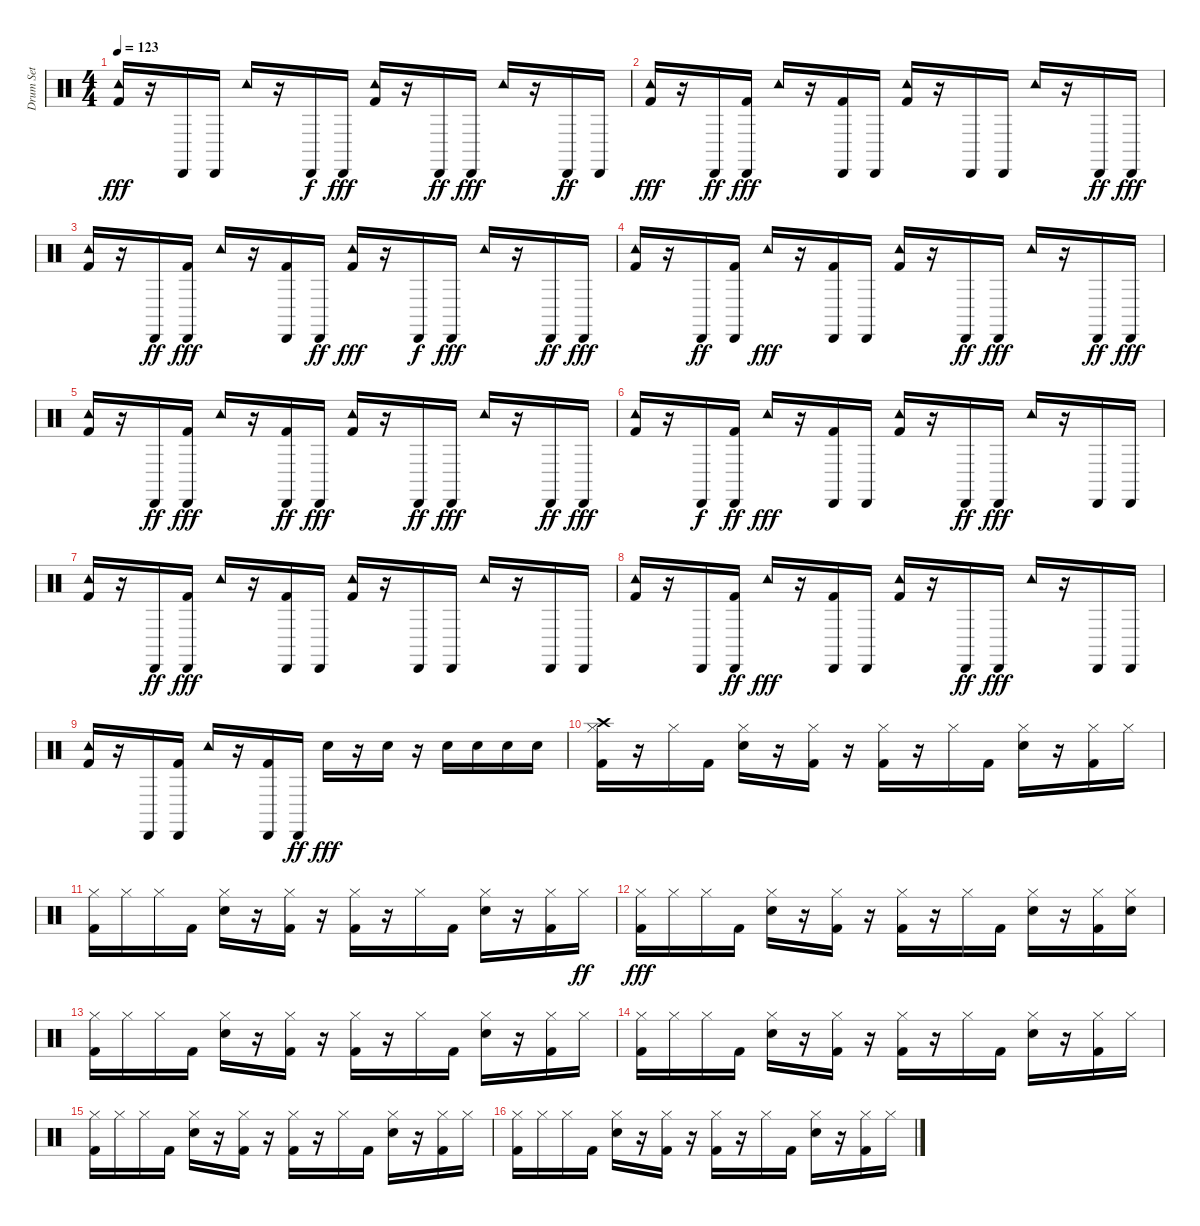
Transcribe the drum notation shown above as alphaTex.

\track ("Drum Set" "Drum Set") {instrument percussion}
\staff {score}
\articulation defaults
\ts (4 4)
\tempo 123
\clef neutral
\ks c
("Kick (hit) 2" "Tambourine (hit)").16{dy fff} r.16 "Cabasa (hit)".16 "Cabasa (hit)".16 "Tambourine (hit)".16 r.16 "Cabasa (hit)".16{dy f} "Cabasa (hit)".16{dy fff} ("Kick (hit) 2" "Tambourine (hit)").16 r.16 "Cabasa (hit)".16{dy ff} "Cabasa (hit)".16{dy fff} "Tambourine (hit)".16 r.16 "Cabasa (hit)".16{dy ff} "Cabasa (hit)".16 |
("Kick (hit) 2" "Tambourine (hit)").16{dy fff} r.16 "Cabasa (hit)".16{dy ff} ("Kick (hit) 2" "Cabasa (hit)").16{dy fff} "Tambourine (hit)".16 r.16 ("Cabasa (hit)" "Kick (hit) 2").16 "Cabasa (hit)".16 ("Kick (hit) 2" "Tambourine (hit)").16 r.16 "Cabasa (hit)".16 "Cabasa (hit)".16 "Tambourine (hit)".16 r.16 "Cabasa (hit)".16{dy ff} "Cabasa (hit)".16{dy fff} |
("Kick (hit) 2" "Tambourine (hit)").16 r.16 "Cabasa (hit)".16{dy ff} ("Kick (hit) 2" "Cabasa (hit)").16{dy fff} "Tambourine (hit)".16 r.16 ("Kick (hit) 2" "Cabasa (hit)").16 "Cabasa (hit)".16{dy ff} ("Kick (hit) 2" "Tambourine (hit)").16{dy fff} r.16 "Cabasa (hit)".16{dy f} "Cabasa (hit)".16{dy fff} "Tambourine (hit)".16 r.16 "Cabasa (hit)".16{dy ff} "Cabasa (hit)".16{dy fff} |
("Kick (hit) 2" "Tambourine (hit)").16 r.16 "Cabasa (hit)".16{dy ff} ("Kick (hit) 2" "Cabasa (hit)").16 "Tambourine (hit)".16{dy fff} r.16 ("Cabasa (hit)" "Kick (hit) 2").16 "Cabasa (hit)".16 ("Tambourine (hit)" "Kick (hit) 2").16 r.16 "Cabasa (hit)".16{dy ff} "Cabasa (hit)".16{dy fff} "Tambourine (hit)".16 r.16 "Cabasa (hit)".16{dy ff} "Cabasa (hit)".16{dy fff} |
("Tambourine (hit)" "Kick (hit) 2").16 r.16 "Cabasa (hit)".16{dy ff} ("Kick (hit) 2" "Cabasa (hit)").16{dy fff} "Tambourine (hit)".16 r.16 ("Kick (hit) 2" "Cabasa (hit)").16{dy ff} "Cabasa (hit)".16{dy fff} ("Tambourine (hit)" "Kick (hit) 2").16 r.16 "Cabasa (hit)".16{dy ff} "Cabasa (hit)".16{dy fff} "Tambourine (hit)".16 r.16 "Cabasa (hit)".16{dy ff} "Cabasa (hit)".16{dy fff} |
("Tambourine (hit)" "Kick (hit) 2").16 r.16 "Cabasa (hit)".16{dy f} ("Kick (hit) 2" "Cabasa (hit)").16{dy ff} "Tambourine (hit)".16{dy fff} r.16 ("Cabasa (hit)" "Kick (hit) 2").16 "Cabasa (hit)".16 ("Kick (hit) 2" "Tambourine (hit)").16 r.16 "Cabasa (hit)".16{dy ff} "Cabasa (hit)".16{dy fff} "Tambourine (hit)".16 r.16 "Cabasa (hit)".16 "Cabasa (hit)".16 |
("Kick (hit) 2" "Tambourine (hit)").16 r.16 "Cabasa (hit)".16{dy ff} ("Kick (hit) 2" "Cabasa (hit)").16{dy fff} "Tambourine (hit)".16 r.16 ("Kick (hit) 2" "Cabasa (hit)").16 "Cabasa (hit)".16 ("Kick (hit) 2" "Tambourine (hit)").16 r.16 "Cabasa (hit)".16 "Cabasa (hit)".16 "Tambourine (hit)".16 r.16 "Cabasa (hit)".16 "Cabasa (hit)".16 |
("Kick (hit) 2" "Tambourine (hit)").16 r.16 "Cabasa (hit)".16 ("Kick (hit) 2" "Cabasa (hit)").16{dy ff} "Tambourine (hit)".16{dy fff} r.16 ("Cabasa (hit)" "Kick (hit) 2").16 "Cabasa (hit)".16 ("Kick (hit) 2" "Tambourine (hit)").16 r.16 "Cabasa (hit)".16{dy ff} "Cabasa (hit)".16{dy fff} "Tambourine (hit)".16 r.16 "Cabasa (hit)".16 "Cabasa (hit)".16 |
("Tambourine (hit)" "Kick (hit) 2").16 r.16 "Cabasa (hit)".16 ("Kick (hit) 2" "Cabasa (hit)").16 "Tambourine (hit)".16 r.16 ("Kick (hit) 2" "Cabasa (hit)").16 "Cabasa (hit)".16{dy ff} "Snare (hit) 2".16{dy fff} r.16 "Snare (hit) 2".16 r.16 "Snare (hit) 2".16 "Snare (hit) 2".16 "Snare (hit) 2".16 "Snare (hit) 2".16 |
("Crash high (hit)" "Kick (hit) 2" "Hi-Hat (closed)").16 r.16 "Hi-Hat (closed)".16 "Kick (hit) 2".16 ("Snare (hit) 2" "Hi-Hat (closed)").16 r.16 ("Kick (hit) 2" "Hi-Hat (closed)").16 r.16 ("Kick (hit) 2" "Hi-Hat (closed)").16 r.16 "Hi-Hat (closed)".16 "Kick (hit) 2".16 ("Snare (hit) 2" "Hi-Hat (closed)").16 r.16 ("Hi-Hat (closed)" "Kick (hit) 2").16 "Hi-Hat (closed)".16 |
("Hi-Hat (closed)" "Kick (hit) 2").16 "Hi-Hat (closed)".16 "Hi-Hat (closed)".16 "Kick (hit) 2".16 ("Hi-Hat (closed)" "Snare (hit) 2").16 r.16 ("Hi-Hat (closed)" "Kick (hit) 2").16 r.16 ("Kick (hit) 2" "Hi-Hat (closed)").16 r.16 "Hi-Hat (closed)".16 "Kick (hit) 2".16 ("Snare (hit) 2" "Hi-Hat (closed)").16 r.16 ("Hi-Hat (closed)" "Kick (hit) 2").16 "Hi-Hat (closed)".16{dy ff} |
("Hi-Hat (closed)" "Kick (hit) 2").16{dy fff} "Hi-Hat (closed)".16 "Hi-Hat (closed)".16 "Kick (hit) 2".16 ("Snare (hit) 2" "Hi-Hat (closed)").16 r.16 ("Kick (hit) 2" "Hi-Hat (closed)").16 r.16 ("Kick (hit) 2" "Hi-Hat (closed)").16 r.16 "Hi-Hat (closed)".16 "Kick (hit) 2".16 ("Snare (hit) 2" "Hi-Hat (closed)").16 r.16 ("Hi-Hat (closed)" "Kick (hit) 2").16 ("Hi-Hat (closed)" "Snare (hit) 2").16 |
("Hi-Hat (closed)" "Kick (hit) 2").16 "Hi-Hat (closed)".16 "Hi-Hat (closed)".16 "Kick (hit) 2".16 ("Hi-Hat (closed)" "Snare (hit) 2").16 r.16 ("Hi-Hat (closed)" "Kick (hit) 2").16 r.16 ("Hi-Hat (closed)" "Kick (hit) 2").16 r.16 "Hi-Hat (closed)".16 "Kick (hit) 2".16 ("Snare (hit) 2" "Hi-Hat (closed)").16 r.16 ("Kick (hit) 2" "Hi-Hat (closed)").16 "Hi-Hat (closed)".16 |
("Hi-Hat (closed)" "Kick (hit) 2").16 "Hi-Hat (closed)".16 "Hi-Hat (closed)".16 "Kick (hit) 2".16 ("Hi-Hat (closed)" "Snare (hit) 2").16 r.16 ("Kick (hit) 2" "Hi-Hat (closed)").16 r.16 ("Kick (hit) 2" "Hi-Hat (closed)").16 r.16 "Hi-Hat (closed)".16 "Kick (hit) 2".16 ("Snare (hit) 2" "Hi-Hat (closed)").16 r.16 ("Hi-Hat (closed)" "Kick (hit) 2").16 "Hi-Hat (closed)".16 |
("Hi-Hat (closed)" "Kick (hit) 2").16 "Hi-Hat (closed)".16 "Hi-Hat (closed)".16 "Kick (hit) 2".16 ("Snare (hit) 2" "Hi-Hat (closed)").16 r.16 ("Kick (hit) 2" "Hi-Hat (closed)").16 r.16 ("Kick (hit) 2" "Hi-Hat (closed)").16 r.16 "Hi-Hat (closed)".16 "Kick (hit) 2".16 ("Snare (hit) 2" "Hi-Hat (closed)").16 r.16 ("Hi-Hat (closed)" "Kick (hit) 2").16 "Hi-Hat (closed)".16 |
("Hi-Hat (closed)" "Kick (hit) 2").16 "Hi-Hat (closed)".16 "Hi-Hat (closed)".16 "Kick (hit) 2".16 ("Snare (hit) 2" "Hi-Hat (closed)").16 r.16 ("Hi-Hat (closed)" "Kick (hit) 2").16 r.16 ("Hi-Hat (closed)" "Kick (hit) 2").16 r.16 "Hi-Hat (closed)".16 "Kick (hit) 2".16 ("Snare (hit) 2" "Hi-Hat (closed)").16 r.16 ("Hi-Hat (closed)" "Kick (hit) 2").16 "Hi-Hat (closed)".16
